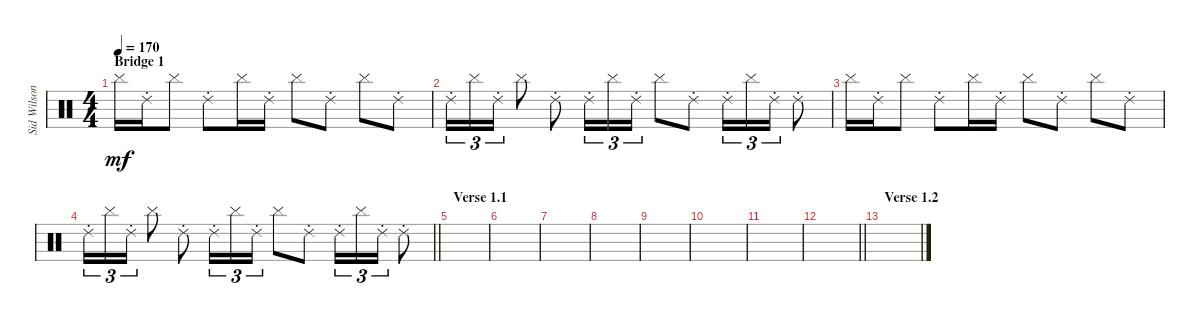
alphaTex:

\track ("Sid Wilson" "Sid Wilson") {instrument percussion}
\staff {score}
\articulation defaults
\ts (4 4)
\section ("" "Bridge 1")
\tempo 170
\clef neutral
\ks c "Cymbal (hit)".16{dy mf} "Ride (choke) 2".16 "Cymbal (hit)".8 "Ride (choke) 2".8 "Cymbal (hit)".16 "Ride (choke) 2".16 "Cymbal (hit)".8 "Ride (choke) 2".8 "Cymbal (hit)".8 "Ride (choke) 2".8
|
"Ride (choke) 2".16{tu (3 2)} "Cymbal (hit)".16{tu (3 2)} "Ride (choke) 2".16{tu (3 2)} "Cymbal (hit)".8 "Ride (choke) 2".8 "Ride (choke) 2".16{tu (3 2)} "Cymbal (hit)".16{tu (3 2)} "Ride (choke) 2".16{tu (3 2)} "Cymbal (hit)".8 "Ride (choke) 2".8 "Ride (choke) 2".16{tu (3 2)} "Cymbal (hit)".16{tu (3 2)} "Ride (choke) 2".16{tu (3 2)} "Ride (choke) 2".8 |
"Cymbal (hit)".16 "Ride (choke) 2".16 "Cymbal (hit)".8 "Ride (choke) 2".8 "Cymbal (hit)".16 "Ride (choke) 2".16 "Cymbal (hit)".8 "Ride (choke) 2".8 "Cymbal (hit)".8 "Ride (choke) 2".8 |
\barLineRight lightlight "Ride (choke) 2".16{tu (3 2)} "Cymbal (hit)".16{tu (3 2)} "Ride (choke) 2".16{tu (3 2)} "Cymbal (hit)".8 "Ride (choke) 2".8 "Ride (choke) 2".16{tu (3 2)} "Cymbal (hit)".16{tu (3 2)} "Ride (choke) 2".16{tu (3 2)} "Cymbal (hit)".8 "Ride (choke) 2".8 "Ride (choke) 2".16{tu (3 2)} "Cymbal (hit)".16{tu (3 2)} "Ride (choke) 2".16{tu (3 2)} "Ride (choke) 2".8
|
\section ("" "Verse 1.1")
|
|
|
|
|
|
|
\barLineRight lightlight
|
\section ("" "Verse 1.2")
